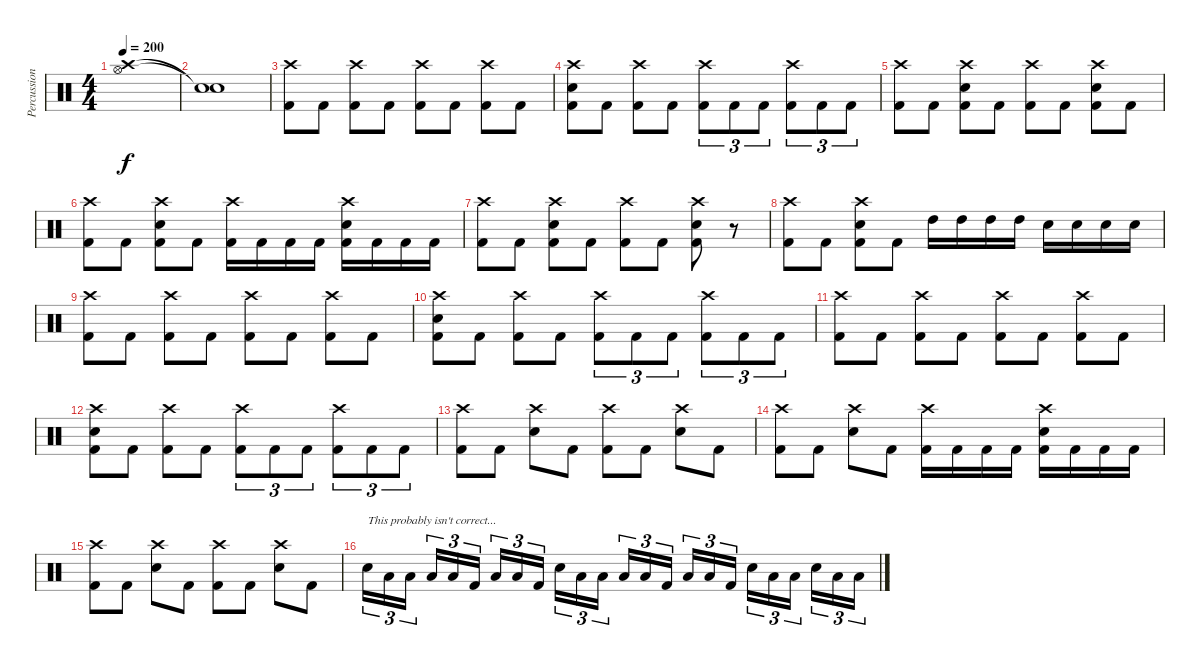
\track ("Percussion" "Percussion") {instrument percussion}
\staff {score}
\articulation defaults
\ts (4 4)
\tempo 200
\clef neutral
\ks c
("Crash high (hit)" "Hi-Hat (open)").1{dy f} |
("Snare (hit)"{t} "Snare (hit)"{t}).1 |
("Crash high (hit)" "Kick (hit) 2").8 "Kick (hit) 2".8 ("Crash high (hit)" "Kick (hit) 2").8 "Kick (hit) 2".8 ("Crash high (hit)" "Kick (hit) 2").8 "Kick (hit) 2".8 ("Crash high (hit)" "Kick (hit) 2").8 "Kick (hit) 2".8 |
("Crash high (hit)" "Electric Snare (hit)" "Kick (hit) 2").8 "Kick (hit) 2".8 ("Crash high (hit)" "Kick (hit) 2").8 "Kick (hit) 2".8 ("Crash high (hit)" "Kick (hit) 2").8{tu (3 2)} "Kick (hit) 2".8{tu (3 2)} "Kick (hit) 2".8{tu (3 2)} ("Crash high (hit)" "Kick (hit) 2").8{tu (3 2)} "Kick (hit) 2".8{tu (3 2)} "Kick (hit) 2".8{tu (3 2)} |
("Crash high (hit)" "Kick (hit) 2").8 "Kick (hit) 2".8 ("Crash high (hit)" "Electric Snare (hit)" "Kick (hit) 2").8 "Kick (hit) 2".8 ("Crash high (hit)" "Kick (hit) 2").8 "Kick (hit) 2".8 ("Crash high (hit)" "Electric Snare (hit)" "Kick (hit) 2").8 "Kick (hit) 2".8 |
("Crash high (hit)" "Kick (hit) 2").8 "Kick (hit) 2".8 ("Crash high (hit)" "Electric Snare (hit)" "Kick (hit) 2").8 "Kick (hit) 2".8 ("Crash high (hit)" "Kick (hit) 2").16 "Kick (hit) 2".16 "Kick (hit) 2".16 "Kick (hit) 2".16 ("Crash high (hit)" "Electric Snare (hit)" "Kick (hit) 2").16 "Kick (hit) 2".16 "Kick (hit) 2".16 "Kick (hit) 2".16 |
("Crash high (hit)" "Kick (hit) 2").8 "Kick (hit) 2".8 ("Crash high (hit)" "Electric Snare (hit)" "Kick (hit) 2").8 "Kick (hit) 2".8 ("Crash high (hit)" "Kick (hit) 2").8 "Kick (hit) 2".8 ("Crash high (hit)" "Electric Snare (hit)" "Kick (hit) 2").8 r.8 |
("Crash high (hit)" "Kick (hit) 2").8 "Kick (hit) 2".8 ("Crash high (hit)" "Electric Snare (hit)" "Kick (hit) 2").8 "Kick (hit) 2".8 "High Tom (hit)".16 "High Tom (hit)".16 "High Tom (hit)".16 "High Tom (hit)".16 "Electric Snare (hit)".16 "Electric Snare (hit)".16 "Electric Snare (hit)".16 "Electric Snare (hit)".16 |
("Crash high (hit)" "Kick (hit) 2").8 "Kick (hit) 2".8 ("Crash high (hit)" "Kick (hit) 2").8 "Kick (hit) 2".8 ("Crash high (hit)" "Kick (hit) 2").8 "Kick (hit) 2".8 ("Crash high (hit)" "Kick (hit) 2").8 "Kick (hit) 2".8 |
("Crash high (hit)" "Electric Snare (hit)" "Kick (hit) 2").8 "Kick (hit) 2".8 ("Crash high (hit)" "Kick (hit) 2").8 "Kick (hit) 2".8 ("Crash high (hit)" "Kick (hit) 2").8{tu (3 2)} "Kick (hit) 2".8{tu (3 2)} "Kick (hit) 2".8{tu (3 2)} ("Crash high (hit)" "Kick (hit) 2").8{tu (3 2)} "Kick (hit) 2".8{tu (3 2)} "Kick (hit) 2".8{tu (3 2)} |
("Crash high (hit)" "Kick (hit) 2").8 "Kick (hit) 2".8 ("Crash high (hit)" "Kick (hit) 2").8 "Kick (hit) 2".8 ("Crash high (hit)" "Kick (hit) 2").8 "Kick (hit) 2".8 ("Crash high (hit)" "Kick (hit) 2").8 "Kick (hit) 2".8 |
("Crash high (hit)" "Electric Snare (hit)" "Kick (hit) 2").8 "Kick (hit) 2".8 ("Crash high (hit)" "Kick (hit) 2").8 "Kick (hit) 2".8 ("Crash high (hit)" "Kick (hit) 2").8{tu (3 2)} "Kick (hit) 2".8{tu (3 2)} "Kick (hit) 2".8{tu (3 2)} ("Crash high (hit)" "Kick (hit) 2").8{tu (3 2)} "Kick (hit) 2".8{tu (3 2)} "Kick (hit) 2".8{tu (3 2)} |
("Crash high (hit)" "Kick (hit) 2").8 "Kick (hit) 2".8 ("Crash high (hit)" "Electric Snare (hit)").8 "Kick (hit) 2".8 ("Crash high (hit)" "Kick (hit) 2").8 "Kick (hit) 2".8 ("Crash high (hit)" "Electric Snare (hit)").8 "Kick (hit) 2".8 |
("Crash high (hit)" "Kick (hit) 2").8 "Kick (hit) 2".8 ("Crash high (hit)" "Electric Snare (hit)").8 "Kick (hit) 2".8 ("Crash high (hit)" "Kick (hit) 2").16 "Kick (hit) 2".16 "Kick (hit) 2".16 "Kick (hit) 2".16 ("Crash high (hit)" "Electric Snare (hit)" "Kick (hit) 2").16 "Kick (hit) 2".16 "Kick (hit) 2".16 "Kick (hit) 2".16 |
("Crash high (hit)" "Kick (hit) 2").8 "Kick (hit) 2".8 ("Crash high (hit)" "Electric Snare (hit)").8 "Kick (hit) 2".8 ("Crash high (hit)" "Kick (hit) 2").8 "Kick (hit) 2".8 ("Crash high (hit)" "Electric Snare (hit)").8 "Kick (hit) 2".8 |
"Electric Snare (hit)".16{tu (3 2) txt "This probably isn't correct..."} "Low Tom (hit)".16{tu (3 2)} "Low Floor Tom (hit)".16{tu (3 2) beam splitsecondary} "Low Tom (hit)".16{tu (3 2)} "Low Floor Tom (hit)".16{tu (3 2)} "Kick (hit) 2".16{tu (3 2)} "Low Tom (hit)".16{tu (3 2)} "Low Floor Tom (hit)".16{tu (3 2)} "Kick (hit) 2".16{tu (3 2) beam splitsecondary} "Electric Snare (hit)".16{tu (3 2)} "Low Tom (hit)".16{tu (3 2)} "Low Floor Tom (hit)".16{tu (3 2)} "Low Tom (hit)".16{tu (3 2)} "Low Floor Tom (hit)".16{tu (3 2)} "Kick (hit) 2".16{tu (3 2) beam splitsecondary} "Low Tom (hit)".16{tu (3 2)} "Low Floor Tom (hit)".16{tu (3 2)} "Kick (hit) 2".16{tu (3 2)} "Electric Snare (hit)".16{tu (3 2)} "Low Tom (hit)".16{tu (3 2)} "Low Floor Tom (hit)".16{tu (3 2) beam splitsecondary} "Electric Snare (hit)".16{tu (3 2)} "Low Tom (hit)".16{tu (3 2)} "Low Floor Tom (hit)".16{tu (3 2)}
